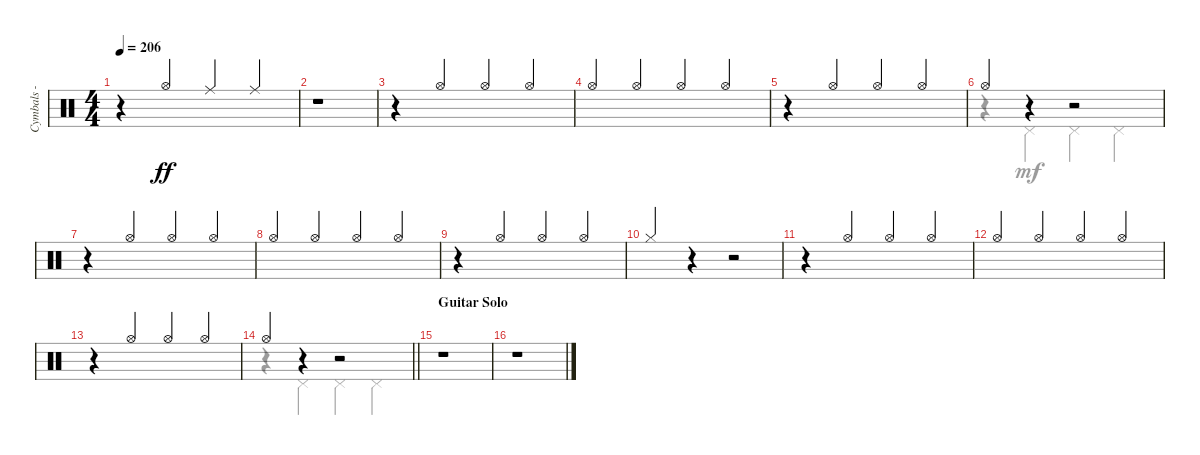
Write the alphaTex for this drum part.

\track ("Cymbals - hi-hat" "Cymbals - ") {instrument percussion}
\staff {score}
\articulation defaults
\voice
\ts (4 4)
\tempo 206
\clef neutral
\ks c
r.4{dy ff} "Hi-Hat (open)".4{beam Up} "Ride (middle)".4{beam Up} "Ride (middle)".4{beam Up} |
r.1 |
r.4 "Hi-Hat (open)".4{beam Up} "Hi-Hat (open)".4{beam Up} "Hi-Hat (open)".4{beam Up} |
"Hi-Hat (open)".4{beam Up} "Hi-Hat (open)".4{beam Up} "Hi-Hat (open)".4{beam Up} "Hi-Hat (open)".4{beam Up} |
r.4 "Hi-Hat (open)".4{beam Up} "Hi-Hat (open)".4{beam Up} "Hi-Hat (open)".4{beam Up} |
"Hi-Hat (open)".4 r.4 r.2 |
r.4 "Hi-Hat (open)".4{beam Up} "Hi-Hat (open)".4{beam Up} "Hi-Hat (open)".4{beam Up} |
"Hi-Hat (open)".4{beam Up} "Hi-Hat (open)".4{beam Up} "Hi-Hat (open)".4{beam Up} "Hi-Hat (open)".4{beam Up} |
r.4 "Hi-Hat (open)".4{beam Up} "Hi-Hat (open)".4{beam Up} "Hi-Hat (open)".4{beam Up} |
"Hi-Hat (closed)".4{beam Up} r.4 r.2 |
r.4 "Hi-Hat (open)".4{beam Up} "Hi-Hat (open)".4{beam Up} "Hi-Hat (open)".4{beam Up} |
"Hi-Hat (open)".4{beam Up} "Hi-Hat (open)".4{beam Up} "Hi-Hat (open)".4{beam Up} "Hi-Hat (open)".4{beam Up} |
r.4 "Hi-Hat (open)".4{beam Up} "Hi-Hat (open)".4{beam Up} "Hi-Hat (open)".4{beam Up} |
\barLineRight lightlight "Hi-Hat (open)".4
r.4 r.2 |
\section ("" "Guitar Solo")
r.1 |
r.1
\voice
\clef neutral
\ottava regular
\simile none
\ks c
|
|
|
|
|
r.4 "Pedal Hi-Hat (hit)".4{dy mf} "Pedal Hi-Hat (hit)".4 "Pedal Hi-Hat (hit)".4 |
|
|
|
|
|
|
|
\barLineRight lightlight
r.4 "Pedal Hi-Hat (hit)".4 "Pedal Hi-Hat (hit)".4 "Pedal Hi-Hat (hit)".4 |
|
